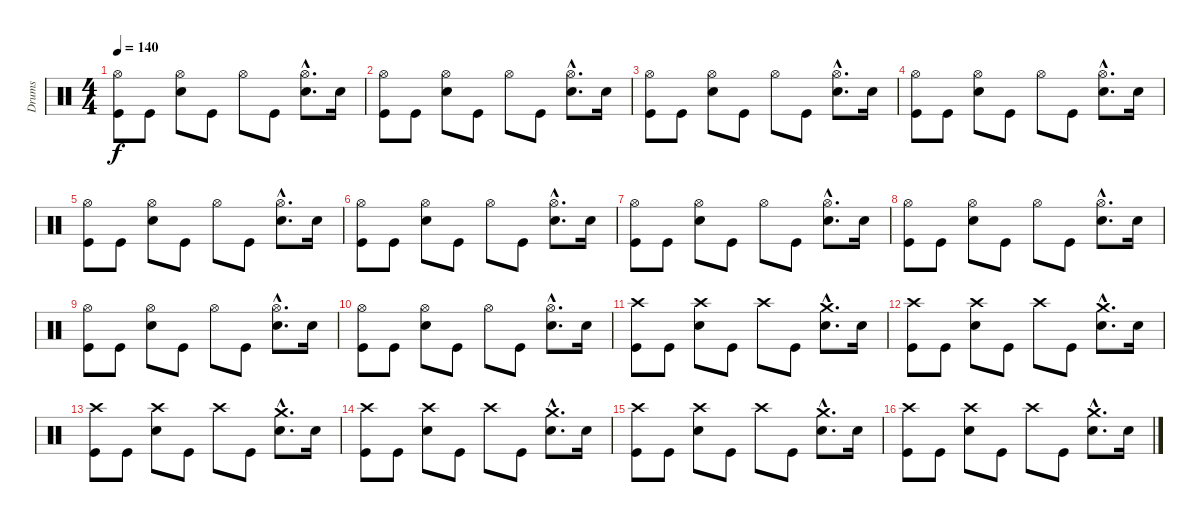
\track ("Drums" "Drums") {instrument percussion}
\staff {score}
\articulation defaults
\ts (4 4)
\tempo 140
\clef neutral
\ks c
("Hi-Hat (open)" "Kick (hit)").8{dy f} "Kick (hit)".8 ("Hi-Hat (open)" "Electric Snare (hit)").8 "Kick (hit)".8 "Hi-Hat (open)".8 "Kick (hit)".8 ("Hi-Hat (open)"{hac} "Electric Snare (hit)"{hac}).8{d} "Electric Snare (hit)".16 |
("Hi-Hat (open)" "Kick (hit)").8 "Kick (hit)".8 ("Hi-Hat (open)" "Electric Snare (hit)").8 "Kick (hit)".8 "Hi-Hat (open)".8 "Kick (hit)".8 ("Hi-Hat (open)"{hac} "Electric Snare (hit)"{hac}).8{d} "Electric Snare (hit)".16 |
("Hi-Hat (open)" "Kick (hit)").8 "Kick (hit)".8 ("Hi-Hat (open)" "Electric Snare (hit)").8 "Kick (hit)".8 "Hi-Hat (open)".8 "Kick (hit)".8 ("Hi-Hat (open)"{hac} "Electric Snare (hit)"{hac}).8{d} "Electric Snare (hit)".16 |
("Hi-Hat (open)" "Kick (hit)").8 "Kick (hit)".8 ("Hi-Hat (open)" "Electric Snare (hit)").8 "Kick (hit)".8 "Hi-Hat (open)".8 "Kick (hit)".8 ("Hi-Hat (open)"{hac} "Electric Snare (hit)"{hac}).8{d} "Electric Snare (hit)".16 |
("Hi-Hat (open)" "Kick (hit)").8 "Kick (hit)".8 ("Hi-Hat (open)" "Electric Snare (hit)").8 "Kick (hit)".8 "Hi-Hat (open)".8 "Kick (hit)".8 ("Hi-Hat (open)"{hac} "Electric Snare (hit)"{hac}).8{d} "Electric Snare (hit)".16 |
("Hi-Hat (open)" "Kick (hit)").8 "Kick (hit)".8 ("Hi-Hat (open)" "Electric Snare (hit)").8 "Kick (hit)".8 "Hi-Hat (open)".8 "Kick (hit)".8 ("Hi-Hat (open)"{hac} "Electric Snare (hit)"{hac}).8{d} "Electric Snare (hit)".16 |
("Hi-Hat (open)" "Kick (hit)").8 "Kick (hit)".8 ("Hi-Hat (open)" "Electric Snare (hit)").8 "Kick (hit)".8 "Hi-Hat (open)".8 "Kick (hit)".8 ("Hi-Hat (open)"{hac} "Electric Snare (hit)"{hac}).8{d} "Electric Snare (hit)".16 |
("Hi-Hat (open)" "Kick (hit)").8 "Kick (hit)".8 ("Hi-Hat (open)" "Electric Snare (hit)").8 "Kick (hit)".8 "Hi-Hat (open)".8 "Kick (hit)".8 ("Hi-Hat (open)"{hac} "Electric Snare (hit)"{hac}).8{d} "Electric Snare (hit)".16 |
("Hi-Hat (open)" "Kick (hit)").8 "Kick (hit)".8 ("Hi-Hat (open)" "Electric Snare (hit)").8 "Kick (hit)".8 "Hi-Hat (open)".8 "Kick (hit)".8 ("Hi-Hat (open)"{hac} "Electric Snare (hit)"{hac}).8{d} "Electric Snare (hit)".16 |
("Hi-Hat (open)" "Kick (hit)").8 "Kick (hit)".8 ("Hi-Hat (open)" "Electric Snare (hit)").8 "Kick (hit)".8 "Hi-Hat (open)".8 "Kick (hit)".8 ("Hi-Hat (open)"{hac} "Electric Snare (hit)"{hac}).8{d} "Electric Snare (hit)".16 |
("Crash high (hit)" "Kick (hit)").8 "Kick (hit)".8 ("Crash high (hit)" "Electric Snare (hit)").8 "Kick (hit)".8 "Crash high (hit)".8 "Kick (hit)".8 ("Crash medium (hit)"{hac} "Electric Snare (hit)"{hac}).8{d} "Electric Snare (hit)".16 |
("Crash high (hit)" "Kick (hit)").8 "Kick (hit)".8 ("Crash high (hit)" "Electric Snare (hit)").8 "Kick (hit)".8 "Crash high (hit)".8 "Kick (hit)".8 ("Crash medium (hit)"{hac} "Electric Snare (hit)"{hac}).8{d} "Electric Snare (hit)".16 |
("Crash high (hit)" "Kick (hit)").8 "Kick (hit)".8 ("Crash high (hit)" "Electric Snare (hit)").8 "Kick (hit)".8 "Crash high (hit)".8 "Kick (hit)".8 ("Crash medium (hit)"{hac} "Electric Snare (hit)"{hac}).8{d} "Electric Snare (hit)".16 |
("Crash high (hit)" "Kick (hit)").8 "Kick (hit)".8 ("Crash high (hit)" "Electric Snare (hit)").8 "Kick (hit)".8 "Crash high (hit)".8 "Kick (hit)".8 ("Crash medium (hit)"{hac} "Electric Snare (hit)"{hac}).8{d} "Electric Snare (hit)".16 |
("Crash high (hit)" "Kick (hit)").8 "Kick (hit)".8 ("Crash high (hit)" "Electric Snare (hit)").8 "Kick (hit)".8 "Crash high (hit)".8 "Kick (hit)".8 ("Crash medium (hit)"{hac} "Electric Snare (hit)"{hac}).8{d} "Electric Snare (hit)".16 |
("Crash high (hit)" "Kick (hit)").8 "Kick (hit)".8 ("Crash high (hit)" "Electric Snare (hit)").8 "Kick (hit)".8 "Crash high (hit)".8 "Kick (hit)".8 ("Crash medium (hit)"{hac} "Electric Snare (hit)"{hac}).8{d} "Electric Snare (hit)".16
